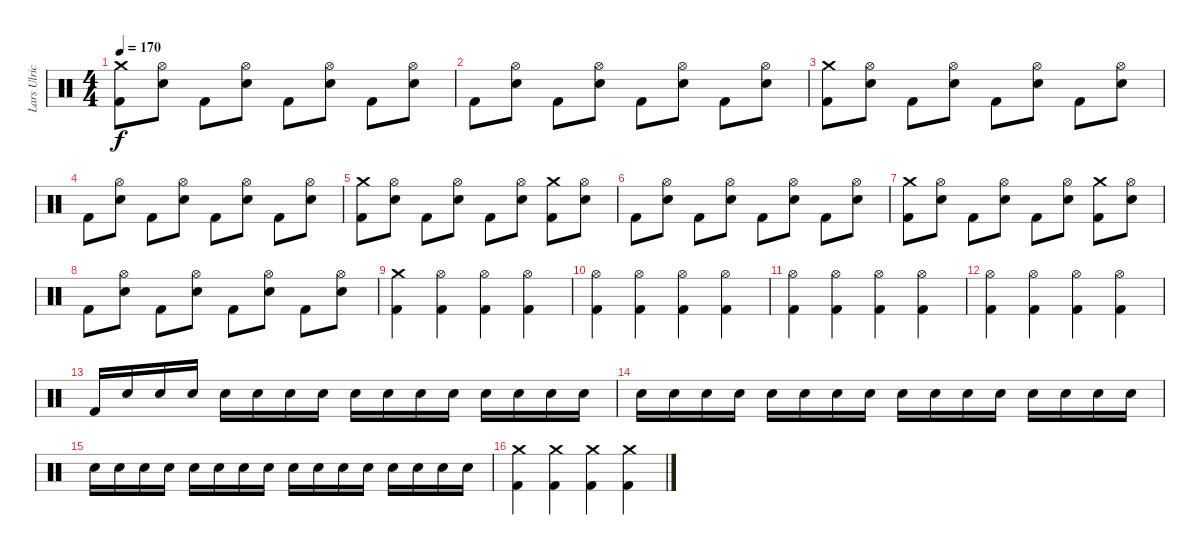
\track ("Lars Ulrich" "Lars Ulric") {instrument percussion}
\staff {score}
\articulation defaults
\ts (4 4)
\tempo 170
\clef neutral
\ks c
("Crash medium (hit)" "Kick (hit) 2").8{dy f} ("Hi-Hat (open)" "Electric Snare (hit)").8 "Kick (hit) 2".8 ("Hi-Hat (open)" "Electric Snare (hit)").8 "Kick (hit) 2".8 ("Hi-Hat (open)" "Electric Snare (hit)").8 "Kick (hit) 2".8 ("Hi-Hat (open)" "Electric Snare (hit)").8 |
"Kick (hit) 2".8 ("Hi-Hat (open)" "Electric Snare (hit)").8 "Kick (hit) 2".8 ("Hi-Hat (open)" "Electric Snare (hit)").8 "Kick (hit) 2".8 ("Hi-Hat (open)" "Electric Snare (hit)").8 "Kick (hit) 2".8 ("Hi-Hat (open)" "Electric Snare (hit)").8 |
("Crash medium (hit)" "Kick (hit) 2").8 ("Hi-Hat (open)" "Electric Snare (hit)").8 "Kick (hit) 2".8 ("Hi-Hat (open)" "Electric Snare (hit)").8 "Kick (hit) 2".8 ("Hi-Hat (open)" "Electric Snare (hit)").8 "Kick (hit) 2".8 ("Hi-Hat (open)" "Electric Snare (hit)").8 |
"Kick (hit) 2".8 ("Hi-Hat (open)" "Electric Snare (hit)").8 "Kick (hit) 2".8 ("Hi-Hat (open)" "Electric Snare (hit)").8 "Kick (hit) 2".8 ("Hi-Hat (open)" "Electric Snare (hit)").8 "Kick (hit) 2".8 ("Hi-Hat (open)" "Electric Snare (hit)").8 |
("Crash medium (hit)" "Kick (hit) 2").8 ("Hi-Hat (open)" "Electric Snare (hit)").8 "Kick (hit) 2".8 ("Hi-Hat (open)" "Electric Snare (hit)").8 "Kick (hit) 2".8 ("Hi-Hat (open)" "Electric Snare (hit)").8 ("Crash medium (hit)" "Kick (hit) 2").8 ("Hi-Hat (open)" "Electric Snare (hit)").8 |
"Kick (hit) 2".8 ("Hi-Hat (open)" "Electric Snare (hit)").8 "Kick (hit) 2".8 ("Hi-Hat (open)" "Electric Snare (hit)").8 "Kick (hit) 2".8 ("Hi-Hat (open)" "Electric Snare (hit)").8 "Kick (hit) 2".8 ("Hi-Hat (open)" "Electric Snare (hit)").8 |
("Crash medium (hit)" "Kick (hit) 2").8 ("Hi-Hat (open)" "Electric Snare (hit)").8 "Kick (hit) 2".8 ("Hi-Hat (open)" "Electric Snare (hit)").8 "Kick (hit) 2".8 ("Hi-Hat (open)" "Electric Snare (hit)").8 ("Crash medium (hit)" "Kick (hit) 2").8 ("Hi-Hat (open)" "Electric Snare (hit)").8 |
"Kick (hit) 2".8 ("Hi-Hat (open)" "Electric Snare (hit)").8 "Kick (hit) 2".8 ("Hi-Hat (open)" "Electric Snare (hit)").8 "Kick (hit) 2".8 ("Hi-Hat (open)" "Electric Snare (hit)").8 "Kick (hit) 2".8 ("Hi-Hat (open)" "Electric Snare (hit)").8 |
("Crash medium (hit)" "Kick (hit) 2").4 ("Hi-Hat (open)" "Kick (hit) 2").4 ("Hi-Hat (open)" "Kick (hit) 2").4 ("Hi-Hat (open)" "Kick (hit) 2").4 |
("Hi-Hat (open)" "Kick (hit) 2").4 ("Hi-Hat (open)" "Kick (hit) 2").4 ("Hi-Hat (open)" "Kick (hit) 2").4 ("Hi-Hat (open)" "Kick (hit) 2").4 |
("Hi-Hat (open)" "Kick (hit) 2").4 ("Hi-Hat (open)" "Kick (hit) 2").4 ("Hi-Hat (open)" "Kick (hit) 2").4 ("Hi-Hat (open)" "Kick (hit) 2").4 |
("Hi-Hat (open)" "Kick (hit) 2").4 ("Hi-Hat (open)" "Kick (hit) 2").4 ("Hi-Hat (open)" "Kick (hit) 2").4 ("Hi-Hat (open)" "Kick (hit) 2").4 |
"Kick (hit) 2".16 "Electric Snare (hit)".16 "Electric Snare (hit)".16 "Electric Snare (hit)".16 "Electric Snare (hit)".16 "Electric Snare (hit)".16 "Electric Snare (hit)".16 "Electric Snare (hit)".16 "Electric Snare (hit)".16 "Electric Snare (hit)".16 "Electric Snare (hit)".16 "Electric Snare (hit)".16 "Electric Snare (hit)".16 "Electric Snare (hit)".16 "Electric Snare (hit)".16 "Electric Snare (hit)".16 |
"Electric Snare (hit)".16 "Electric Snare (hit)".16 "Electric Snare (hit)".16 "Electric Snare (hit)".16 "Electric Snare (hit)".16 "Electric Snare (hit)".16 "Electric Snare (hit)".16 "Electric Snare (hit)".16 "Electric Snare (hit)".16 "Electric Snare (hit)".16 "Electric Snare (hit)".16 "Electric Snare (hit)".16 "Electric Snare (hit)".16 "Electric Snare (hit)".16 "Electric Snare (hit)".16 "Electric Snare (hit)".16 |
"Electric Snare (hit)".16 "Electric Snare (hit)".16 "Electric Snare (hit)".16 "Electric Snare (hit)".16 "Electric Snare (hit)".16 "Electric Snare (hit)".16 "Electric Snare (hit)".16 "Electric Snare (hit)".16 "Electric Snare (hit)".16 "Electric Snare (hit)".16 "Electric Snare (hit)".16 "Electric Snare (hit)".16 "Electric Snare (hit)".16 "Electric Snare (hit)".16 "Electric Snare (hit)".16 "Electric Snare (hit)".16 |
("Crash medium (hit)" "Kick (hit) 2").4 ("Crash medium (hit)" "Kick (hit) 2").4 ("Crash medium (hit)" "Kick (hit) 2").4 ("Crash medium (hit)" "Kick (hit) 2").4
